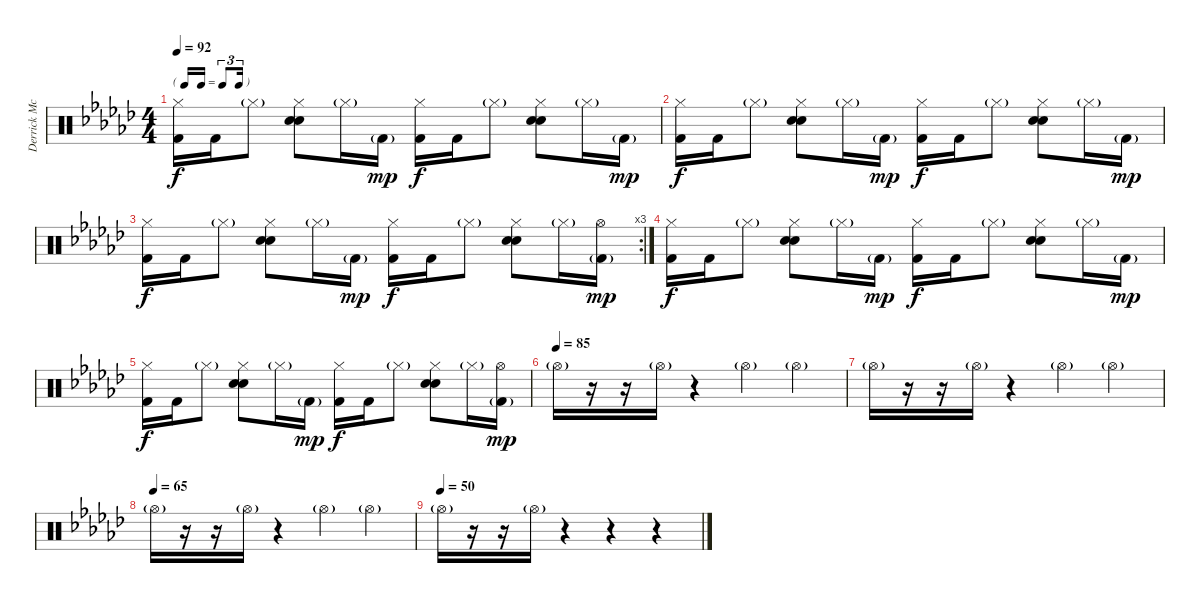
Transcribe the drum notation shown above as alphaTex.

\track ("Derrick McKenzie" "Derrick Mc") {instrument percussion}
\staff {score}
\articulation defaults
\ts (4 4)
\tf triplet16th
\tempo 92
\clef neutral
\ks ebminor
("Hi-Hat (closed)" "Kick (hit) 2").16{dy f} "Kick (hit) 2".16 "Hi-Hat (closed)"{g}.8 ("Hi-Hat (closed)" "Hand Clap (hit)" "Electric Snare (hit)").8 "Hi-Hat (closed)"{g}.16 "Kick (hit) 2"{g}.16{dy mp} ("Hi-Hat (closed)" "Kick (hit) 2").16{dy f} "Kick (hit) 2".16 "Hi-Hat (closed)"{g}.8 ("Hi-Hat (closed)" "Hand Clap (hit)" "Electric Snare (hit)").8 "Hi-Hat (closed)"{g}.16 "Kick (hit) 2"{g}.16{dy mp} |
("Hi-Hat (closed)" "Kick (hit) 2").16{dy f} "Kick (hit) 2".16 "Hi-Hat (closed)"{g}.8 ("Hi-Hat (closed)" "Hand Clap (hit)" "Electric Snare (hit)").8 "Hi-Hat (closed)"{g}.16 "Kick (hit) 2"{g}.16{dy mp} ("Hi-Hat (closed)" "Kick (hit) 2").16{dy f} "Kick (hit) 2".16 "Hi-Hat (closed)"{g}.8 ("Hi-Hat (closed)" "Hand Clap (hit)" "Electric Snare (hit)").8 "Hi-Hat (closed)"{g}.16 "Kick (hit) 2"{g}.16{dy mp} |
\rc 3
("Hi-Hat (closed)" "Kick (hit) 2").16{dy f} "Kick (hit) 2".16 "Hi-Hat (closed)"{g}.8 ("Hi-Hat (closed)" "Hand Clap (hit)" "Electric Snare (hit)").8 "Hi-Hat (closed)"{g}.16 "Kick (hit) 2"{g}.16{dy mp} ("Hi-Hat (closed)" "Kick (hit) 2").16{dy f} "Kick (hit) 2".16 "Hi-Hat (closed)"{g}.8 ("Hi-Hat (closed)" "Hand Clap (hit)" "Electric Snare (hit)").8 "Hi-Hat (closed)"{g}.16 ("Hi-Hat (open)" "Kick (hit) 2"{g}).16{dy mp} |
("Hi-Hat (closed)" "Kick (hit) 2").16{dy f} "Kick (hit) 2".16 "Hi-Hat (closed)"{g}.8 ("Hi-Hat (closed)" "Hand Clap (hit)" "Electric Snare (hit)").8 "Hi-Hat (closed)"{g}.16 "Kick (hit) 2"{g}.16{dy mp} ("Hi-Hat (closed)" "Kick (hit) 2").16{dy f} "Kick (hit) 2".16 "Hi-Hat (closed)"{g}.8 ("Hi-Hat (closed)" "Hand Clap (hit)" "Electric Snare (hit)").8 "Hi-Hat (closed)"{g}.16 "Kick (hit) 2"{g}.16{dy mp} |
("Hi-Hat (closed)" "Kick (hit) 2").16{dy f} "Kick (hit) 2".16 "Hi-Hat (closed)"{g}.8 ("Hi-Hat (closed)" "Hand Clap (hit)" "Electric Snare (hit)").8 "Hi-Hat (closed)"{g}.16 "Kick (hit) 2"{g}.16{dy mp} ("Hi-Hat (closed)" "Kick (hit) 2").16{dy f} "Kick (hit) 2".16 "Hi-Hat (closed)"{g}.8 ("Hi-Hat (closed)" "Hand Clap (hit)" "Electric Snare (hit)").8 "Hi-Hat (closed)"{g}.16 ("Hi-Hat (open)" "Kick (hit) 2"{g}).16{dy mp} |
\tempo (85)
"Hi-Hat (open)"{g}.16 r.16 r.16 "Hi-Hat (open)"{g}.16 r.4 "Hi-Hat (open)"{g}.4 "Hi-Hat (open)"{g}.4 |
"Hi-Hat (open)"{g}.16 r.16 r.16 "Hi-Hat (open)"{g}.16 r.4 "Hi-Hat (open)"{g}.4 "Hi-Hat (open)"{g}.4 |
\tempo (65)
"Hi-Hat (open)"{g}.16 r.16 r.16 "Hi-Hat (open)"{g}.16 r.4 "Hi-Hat (open)"{g}.4 "Hi-Hat (open)"{g}.4 |
\tempo (50)
"Hi-Hat (open)"{g}.16 r.16 r.16 "Hi-Hat (open)"{g}.16 r.4 r.4 r.4
